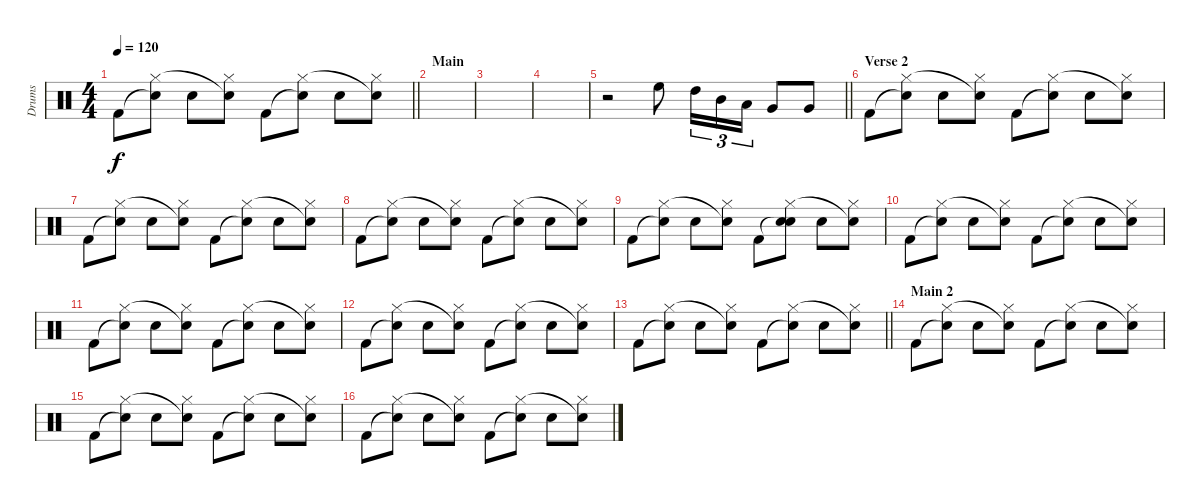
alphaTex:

\track ("Drums" "Drums") {instrument percussion}
\staff {score}
\articulation defaults
\ts (4 4)
\tempo 120
\clef neutral
\barLineRight lightlight
\ks c "Kick (hit) 2".8{dy f}
("Snare (hit)"{t} "Hi-Hat (closed)").8 "Snare (hit) 2".8 ("Hi-Hat (closed)" "Snare (hit)"{t}).8 "Kick (hit) 2".8 ("Snare (hit)"{t} "Hi-Hat (closed)").8 "Snare (hit) 2".8 ("Hi-Hat (closed)" "Snare (hit)"{t}).8 |
\section ("" "Main")
|
|
|
\barLineRight lightlight
r.2 "High Floor Tom (hit)".8 "High Tom (hit)".16{tu (3 2)} "Mid Tom (hit)".16{tu (3 2)} "Low Tom (hit)".16{tu (3 2)} "Very Low Tom (hit)".8 "Very Low Tom (hit)".8 |
\section ("" "Verse 2")
"Kick (hit) 2".8 ("Snare (hit)"{t} "Hi-Hat (closed)").8 "Snare (hit) 2".8 ("Hi-Hat (closed)" "Snare (hit)"{t}).8 "Kick (hit) 2".8 ("Snare (hit)"{t} "Hi-Hat (closed)").8 "Snare (hit) 2".8 ("Hi-Hat (closed)" "Snare (hit)"{t}).8 |
"Kick (hit) 2".8 ("Snare (hit)"{t} "Hi-Hat (closed)").8 "Snare (hit) 2".8 ("Hi-Hat (closed)" "Snare (hit)"{t}).8 "Kick (hit) 2".8 ("Snare (hit)"{t} "Hi-Hat (closed)").8 "Snare (hit) 2".8 ("Hi-Hat (closed)" "Snare (hit)"{t}).8 |
"Kick (hit) 2".8 ("Snare (hit)"{t} "Hi-Hat (closed)").8 "Snare (hit) 2".8 ("Hi-Hat (closed)" "Snare (hit)"{t}).8 "Kick (hit) 2".8 ("Snare (hit)"{t} "Hi-Hat (closed)").8 "Snare (hit) 2".8 ("Hi-Hat (closed)" "Snare (hit)"{t}).8 |
"Kick (hit) 2".8 ("Snare (hit)"{t} "Hi-Hat (closed)").8 "Snare (hit) 2".8 ("Hi-Hat (closed)" "Snare (hit)"{t}).8 "Kick (hit) 2".8 ("Snare (hit)"{t} "Hi-Hat (closed)" "Snare (hit) 2").8 "Snare (hit) 2".8 ("Hi-Hat (closed)" "Snare (hit)"{t}).8 |
"Kick (hit) 2".8 ("Snare (hit)"{t} "Hi-Hat (closed)").8 "Snare (hit) 2".8 ("Hi-Hat (closed)" "Snare (hit)"{t}).8 "Kick (hit) 2".8 ("Snare (hit)"{t} "Hi-Hat (closed)").8 "Snare (hit) 2".8 ("Hi-Hat (closed)" "Snare (hit)"{t}).8 |
"Kick (hit) 2".8 ("Snare (hit)"{t} "Hi-Hat (closed)").8 "Snare (hit) 2".8 ("Hi-Hat (closed)" "Snare (hit)"{t}).8 "Kick (hit) 2".8 ("Snare (hit)"{t} "Hi-Hat (closed)").8 "Snare (hit) 2".8 ("Hi-Hat (closed)" "Snare (hit)"{t}).8 |
"Kick (hit) 2".8 ("Snare (hit)"{t} "Hi-Hat (closed)").8 "Snare (hit) 2".8 ("Hi-Hat (closed)" "Snare (hit)"{t}).8 "Kick (hit) 2".8 ("Snare (hit)"{t} "Hi-Hat (closed)").8 "Snare (hit) 2".8 ("Hi-Hat (closed)" "Snare (hit)"{t}).8 |
\barLineRight lightlight "Kick (hit) 2".8
("Snare (hit)"{t} "Hi-Hat (closed)").8 "Snare (hit) 2".8 ("Hi-Hat (closed)" "Snare (hit)"{t}).8 "Kick (hit) 2".8 ("Snare (hit)"{t} "Hi-Hat (closed)").8 "Snare (hit) 2".8 ("Hi-Hat (closed)" "Snare (hit)"{t}).8 |
\section ("" "Main 2")
"Kick (hit) 2".8 ("Snare (hit)"{t} "Hi-Hat (closed)").8 "Snare (hit) 2".8 ("Hi-Hat (closed)" "Snare (hit)"{t}).8 "Kick (hit) 2".8 ("Snare (hit)"{t} "Hi-Hat (closed)").8 "Snare (hit) 2".8 ("Hi-Hat (closed)" "Snare (hit)"{t}).8 |
"Kick (hit) 2".8 ("Snare (hit)"{t} "Hi-Hat (closed)").8 "Snare (hit) 2".8 ("Hi-Hat (closed)" "Snare (hit)"{t}).8 "Kick (hit) 2".8 ("Snare (hit)"{t} "Hi-Hat (closed)").8 "Snare (hit) 2".8 ("Hi-Hat (closed)" "Snare (hit)"{t}).8 |
"Kick (hit) 2".8 ("Snare (hit)"{t} "Hi-Hat (closed)").8 "Snare (hit) 2".8 ("Hi-Hat (closed)" "Snare (hit)"{t}).8 "Kick (hit) 2".8 ("Snare (hit)"{t} "Hi-Hat (closed)").8 "Snare (hit) 2".8 ("Hi-Hat (closed)" "Snare (hit)"{t}).8
